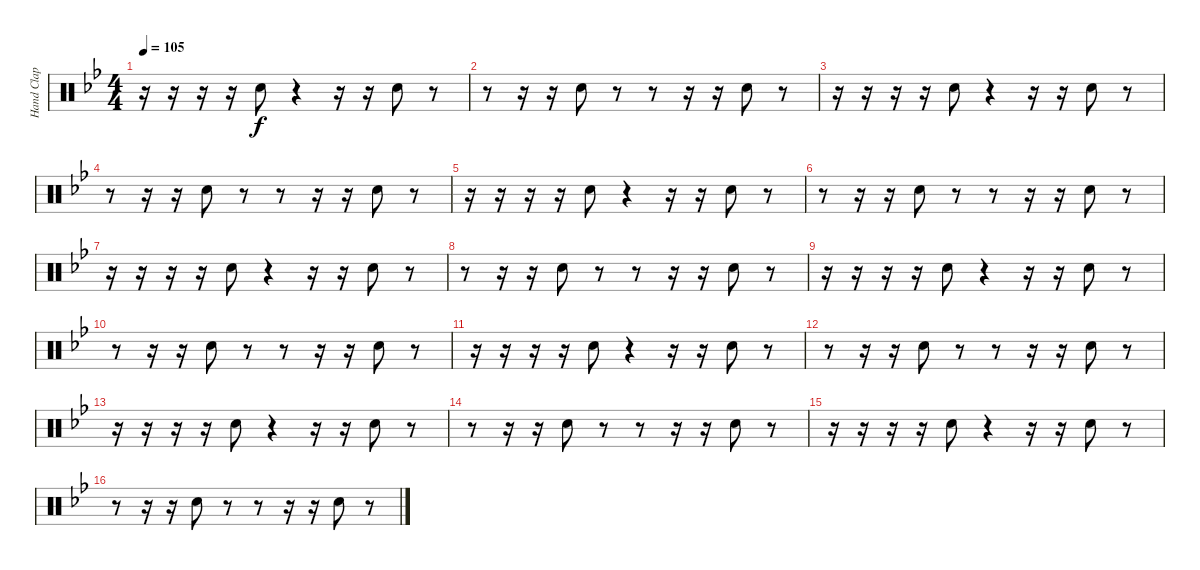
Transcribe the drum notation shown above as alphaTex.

\track ("Hand Clap" "Hand Clap") {instrument percussion}
\staff {score}
\articulation defaults
\ts (4 4)
\tempo 105
\clef neutral
\ks gminor
r.16{dy f} r.16 r.16 r.16 "Hand Clap (hit)".8 r.4 r.16 r.16 "Hand Clap (hit)".8 r.8 |
r.8 r.16 r.16 "Hand Clap (hit)".8 r.8 r.8 r.16 r.16 "Hand Clap (hit)".8 r.8 |
r.16 r.16 r.16 r.16 "Hand Clap (hit)".8 r.4 r.16 r.16 "Hand Clap (hit)".8 r.8 |
r.8 r.16 r.16 "Hand Clap (hit)".8 r.8 r.8 r.16 r.16 "Hand Clap (hit)".8 r.8 |
r.16 r.16 r.16 r.16 "Hand Clap (hit)".8 r.4 r.16 r.16 "Hand Clap (hit)".8 r.8 |
r.8 r.16 r.16 "Hand Clap (hit)".8 r.8 r.8 r.16 r.16 "Hand Clap (hit)".8 r.8 |
r.16 r.16 r.16 r.16 "Hand Clap (hit)".8 r.4 r.16 r.16 "Hand Clap (hit)".8 r.8 |
r.8 r.16 r.16 "Hand Clap (hit)".8 r.8 r.8 r.16 r.16 "Hand Clap (hit)".8 r.8 |
r.16 r.16 r.16 r.16 "Hand Clap (hit)".8 r.4 r.16 r.16 "Hand Clap (hit)".8 r.8 |
r.8 r.16 r.16 "Hand Clap (hit)".8 r.8 r.8 r.16 r.16 "Hand Clap (hit)".8 r.8 |
r.16 r.16 r.16 r.16 "Hand Clap (hit)".8 r.4 r.16 r.16 "Hand Clap (hit)".8 r.8 |
r.8 r.16 r.16 "Hand Clap (hit)".8 r.8 r.8 r.16 r.16 "Hand Clap (hit)".8 r.8 |
r.16 r.16 r.16 r.16 "Hand Clap (hit)".8 r.4 r.16 r.16 "Hand Clap (hit)".8 r.8 |
r.8 r.16 r.16 "Hand Clap (hit)".8 r.8 r.8 r.16 r.16 "Hand Clap (hit)".8 r.8 |
r.16 r.16 r.16 r.16 "Hand Clap (hit)".8 r.4 r.16 r.16 "Hand Clap (hit)".8 r.8 |
r.8 r.16 r.16 "Hand Clap (hit)".8 r.8 r.8 r.16 r.16 "Hand Clap (hit)".8 r.8
